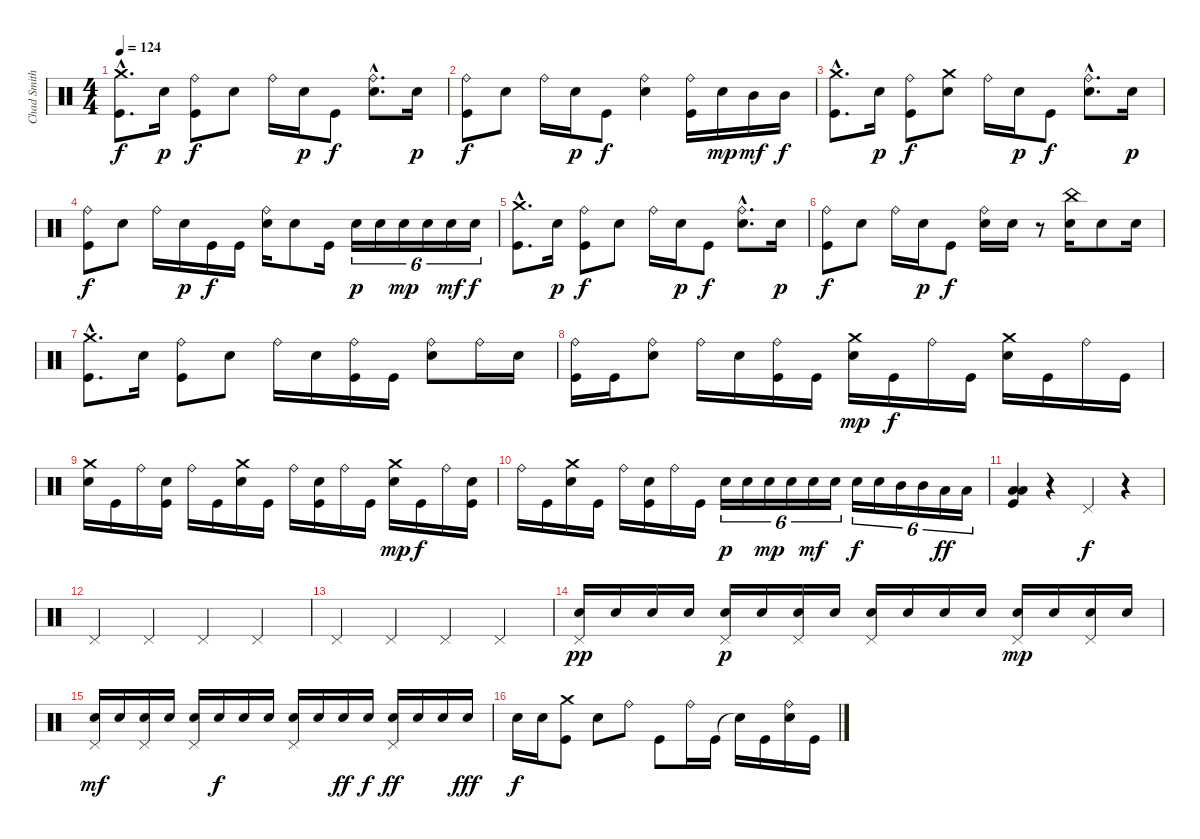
\track ("Chad Smith" "Chad Smith") {instrument percussion}
\staff {score}
\articulation defaults
\ts (4 4)
\tempo 124
\clef neutral
\ks c
("Crash medium (hit)"{hac} "Kick (hit)"{hac}).8{d dy f} "Electric Snare (hit)".16{dy p} ("Ride (bell)" "Kick (hit)").8{dy f} "Electric Snare (hit)".8 "Ride (bell)".16 "Electric Snare (hit)".16{dy p} "Kick (hit)".8{dy f} ("Ride (bell)"{hac} "Electric Snare (hit)"{hac}).8{d} "Electric Snare (hit)".16{dy p} |
("Ride (bell)" "Kick (hit)").8{dy f} "Electric Snare (hit)".8 "Ride (bell)".16 "Electric Snare (hit)".16{dy p} "Kick (hit)".8{dy f} ("Ride (bell)" "Electric Snare (hit)").4 ("Ride (bell)" "Kick (hit)").16 "Electric Snare (hit)".16{dy mp} "Mid Tom (hit)".16{dy mf} "Mid Tom (hit)".16{dy f} |
("Crash medium (hit)"{hac} "Kick (hit)"{hac}).8{d} "Electric Snare (hit)".16{dy p} ("Ride (bell)" "Kick (hit)").8{dy f} ("Crash medium (hit)" "Electric Snare (hit)").8 "Ride (bell)".16 "Electric Snare (hit)".16{dy p} "Kick (hit)".8{dy f} ("Ride (bell)"{hac} "Electric Snare (hit)"{hac}).8{d} "Electric Snare (hit)".16{dy p} |
("Ride (bell)" "Kick (hit)").8{dy f} "Electric Snare (hit)".8 "Ride (bell)".16 "Electric Snare (hit)".16{dy p} "Kick (hit)".16{dy f} "Kick (hit)".16 ("Ride (bell)" "Electric Snare (hit)").16 "Electric Snare (hit)".8 "Kick (hit)".16 "Electric Snare (hit)".16{tu (6 4) dy p} "Electric Snare (hit)".16{tu (6 4)} "Electric Snare (hit)".16{tu (6 4) dy mp} "Electric Snare (hit)".16{tu (6 4)} "Electric Snare (hit)".16{tu (6 4) dy mf} "Electric Snare (hit)".16{tu (6 4) dy f} |
("Crash medium (hit)"{hac} "Kick (hit)"{hac}).8{d} "Electric Snare (hit)".16{dy p} ("Ride (bell)" "Kick (hit)").8{dy f} "Electric Snare (hit)".8 "Ride (bell)".16 "Electric Snare (hit)".16{dy p} "Kick (hit)".8{dy f} ("Ride (bell)"{hac} "Electric Snare (hit)"{hac}).8{d} "Electric Snare (hit)".16{dy p} |
("Ride (bell)" "Kick (hit)").8{dy f} "Electric Snare (hit)".8 "Ride (bell)".16 "Electric Snare (hit)".16{dy p} "Kick (hit)".8{dy f} ("Ride (bell)" "Electric Snare (hit)").16 "Electric Snare (hit)".16 r.8 ("China (hit)" "Electric Snare (hit)").16 "Electric Snare (hit)".8 "Electric Snare (hit)".16 |
("Crash medium (hit)"{hac} "Kick (hit)"{hac}).8{d} "Electric Snare (hit)".16 ("Ride (bell)" "Kick (hit)").8 "Electric Snare (hit)".8 "Ride (bell)".16 "Electric Snare (hit)".16 ("Ride (bell)" "Kick (hit)").16 "Kick (hit)".16 ("Ride (bell)" "Electric Snare (hit)").8 "Ride (bell)".16 "Electric Snare (hit)".16 |
("Ride (bell)" "Kick (hit)").16 "Kick (hit)".16 ("Ride (bell)" "Electric Snare (hit)").8 "Ride (bell)".16 "Electric Snare (hit)".16 ("Ride (bell)" "Kick (hit)").16 "Kick (hit)".16 ("Crash medium (hit)" "Electric Snare (hit)").16{dy mp} "Kick (hit)".16{dy f} "Ride (bell)".16 "Kick (hit)".16 ("Crash medium (hit)" "Electric Snare (hit)").16 "Kick (hit)".16 "Ride (bell)".16 "Kick (hit)".16 |
("Crash medium (hit)" "Electric Snare (hit)").16 "Kick (hit)".16 "Ride (bell)".16 ("Electric Snare (hit)" "Kick (hit)").16 "Ride (bell)".16 "Kick (hit)".16 ("Crash medium (hit)" "Electric Snare (hit)").16 "Kick (hit)".16 "Ride (bell)".16 ("Electric Snare (hit)" "Kick (hit)").16 "Ride (bell)".16 "Kick (hit)".16 ("Crash medium (hit)" "Electric Snare (hit)").16{dy mp} "Kick (hit)".16{dy f} "Ride (bell)".16 ("Electric Snare (hit)" "Kick (hit)").16 |
"Ride (bell)".16 "Kick (hit)".16 ("Crash medium (hit)" "Electric Snare (hit)").16 "Kick (hit)".16 "Ride (bell)".16 ("Electric Snare (hit)" "Kick (hit)").16 "Ride (bell)".16 "Kick (hit)".16 "Electric Snare (hit)".16{tu (6 4) dy p} "Electric Snare (hit)".16{tu (6 4)} "Electric Snare (hit)".16{tu (6 4) dy mp} "Electric Snare (hit)".16{tu (6 4)} "Electric Snare (hit)".16{tu (6 4) dy mf} "Electric Snare (hit)".16{tu (6 4)} "Electric Snare (hit)".16{tu (6 4) dy f} "Electric Snare (hit)".16{tu (6 4)} "Mid Tom (hit)".16{tu (6 4)} "Mid Tom (hit)".16{tu (6 4)} "Low Tom (hit)".16{tu (6 4) dy ff} "Low Tom (hit)".16{tu (6 4)} |
("Low Tom (hit)" "Low Tom (hit)" "Kick (hit)").4 r.4 "Pedal Hi-Hat (hit)".4{dy f} r.4 |
"Pedal Hi-Hat (hit)".4 "Pedal Hi-Hat (hit)".4 "Pedal Hi-Hat (hit)".4 "Pedal Hi-Hat (hit)".4 |
"Pedal Hi-Hat (hit)".4 "Pedal Hi-Hat (hit)".4 "Pedal Hi-Hat (hit)".4 "Pedal Hi-Hat (hit)".4 |
("Electric Snare (hit)" "Pedal Hi-Hat (hit)").16{dy pp} "Electric Snare (hit)".16 "Electric Snare (hit)".16 "Electric Snare (hit)".16 ("Electric Snare (hit)" "Pedal Hi-Hat (hit)").16{dy p} "Electric Snare (hit)".16 ("Electric Snare (hit)" "Pedal Hi-Hat (hit)").16 "Electric Snare (hit)".16 ("Electric Snare (hit)" "Pedal Hi-Hat (hit)").16 "Electric Snare (hit)".16 "Electric Snare (hit)".16 "Electric Snare (hit)".16 ("Electric Snare (hit)" "Pedal Hi-Hat (hit)").16{dy mp} "Electric Snare (hit)".16 ("Electric Snare (hit)" "Pedal Hi-Hat (hit)").16 "Electric Snare (hit)".16 |
("Electric Snare (hit)" "Pedal Hi-Hat (hit)").16{dy mf} "Electric Snare (hit)".16 ("Electric Snare (hit)" "Pedal Hi-Hat (hit)").16 "Electric Snare (hit)".16 ("Electric Snare (hit)" "Pedal Hi-Hat (hit)").16 "Electric Snare (hit)".16{dy f} "Electric Snare (hit)".16 "Electric Snare (hit)".16 ("Electric Snare (hit)" "Pedal Hi-Hat (hit)").16 "Electric Snare (hit)".16 "Electric Snare (hit)".16{dy ff} "Electric Snare (hit)".16{dy f} ("Electric Snare (hit)" "Pedal Hi-Hat (hit)").16{dy ff} "Electric Snare (hit)".16 "Electric Snare (hit)".16 "Electric Snare (hit)".16{dy fff} |
"Electric Snare (hit)".16{dy f} "Electric Snare (hit)".16 ("Crash medium (hit)" "Kick (hit)").8 "Electric Snare (hit)".8 "Ride (bell)".8 "Kick (hit)".8 "Ride (bell)".16 "Kick (hit)".16 "Snare (hit)"{t}.16 "Kick (hit)".16 ("Ride (bell)" "Electric Snare (hit)").16 "Kick (hit)".16
